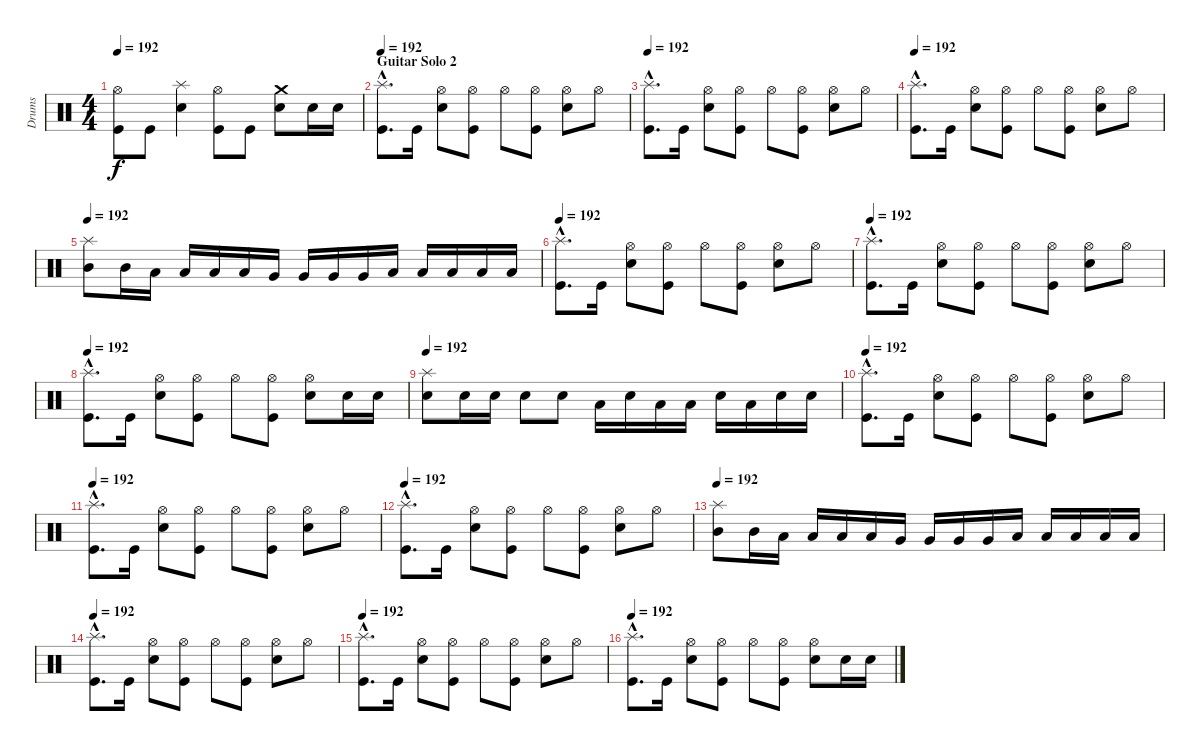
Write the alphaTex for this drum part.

\track ("Drums" "Drums") {instrument percussion}
\staff {score}
\articulation defaults
\ts (4 4)
\tempo 192
\clef neutral
\ks c
("Kick (hit)" "Hi-Hat (open)").8{dy f} "Kick (hit)".8 ("Electric Snare (hit)" "Splash (hit)").4 ("Kick (hit)" "Hi-Hat (open)").8 "Kick (hit)".8 ("Electric Snare (hit)" "Crash medium (hit)").8 "Electric Snare (hit)".16 "Electric Snare (hit)".16 |
\section ("" "Guitar Solo 2")
\tempo 192
("Kick (hit)"{hac} "Splash (hit)"{hac}).8{d} "Kick (hit)".16 ("Electric Snare (hit)" "Hi-Hat (open)").8 ("Kick (hit)" "Hi-Hat (open)").8 "Hi-Hat (open)".8 ("Kick (hit)" "Hi-Hat (open)").8 ("Electric Snare (hit)" "Hi-Hat (open)").8 "Hi-Hat (open)".8 |
\tempo 192
("Kick (hit)"{hac} "Splash (hit)"{hac}).8{d} "Kick (hit)".16 ("Electric Snare (hit)" "Hi-Hat (open)").8 ("Kick (hit)" "Hi-Hat (open)").8 "Hi-Hat (open)".8 ("Kick (hit)" "Hi-Hat (open)").8 ("Electric Snare (hit)" "Hi-Hat (open)").8 "Hi-Hat (open)".8 |
\tempo 192
("Kick (hit)"{hac} "Splash (hit)"{hac}).8{d} "Kick (hit)".16 ("Electric Snare (hit)" "Hi-Hat (open)").8 ("Kick (hit)" "Hi-Hat (open)").8 "Hi-Hat (open)".8 ("Kick (hit)" "Hi-Hat (open)").8 ("Electric Snare (hit)" "Hi-Hat (open)").8 "Hi-Hat (open)".8 |
\tempo 192
("Mid Tom (hit)" "Splash (hit)").8 "Mid Tom (hit)".16 "Low Tom (hit)".16 "Low Tom (hit)".16 "Low Tom (hit)".16 "Low Tom (hit)".16 "Very Low Tom (hit)".16 "Very Low Tom (hit)".16 "Very Low Tom (hit)".16 "Very Low Tom (hit)".16 "Low Floor Tom (hit)".16 "Low Floor Tom (hit)".16 "Low Floor Tom (hit)".16 "Low Floor Tom (hit)".16 "Low Floor Tom (hit)".16 |
\tempo 192
("Kick (hit)"{hac} "Splash (hit)"{hac}).8{d} "Kick (hit)".16 ("Electric Snare (hit)" "Hi-Hat (open)").8 ("Kick (hit)" "Hi-Hat (open)").8 "Hi-Hat (open)".8 ("Kick (hit)" "Hi-Hat (open)").8 ("Electric Snare (hit)" "Hi-Hat (open)").8 "Hi-Hat (open)".8 |
\tempo 192
("Kick (hit)"{hac} "Splash (hit)"{hac}).8{d} "Kick (hit)".16 ("Electric Snare (hit)" "Hi-Hat (open)").8 ("Kick (hit)" "Hi-Hat (open)").8 "Hi-Hat (open)".8 ("Kick (hit)" "Hi-Hat (open)").8 ("Electric Snare (hit)" "Hi-Hat (open)").8 "Hi-Hat (open)".8 |
\tempo 192
("Kick (hit)"{hac} "Splash (hit)"{hac}).8{d} "Kick (hit)".16 ("Electric Snare (hit)" "Hi-Hat (open)").8 ("Kick (hit)" "Hi-Hat (open)").8 "Hi-Hat (open)".8 ("Kick (hit)" "Hi-Hat (open)").8 ("Electric Snare (hit)" "Hi-Hat (open)").8 "Electric Snare (hit)".16 "Electric Snare (hit)".16 |
\tempo 192
("Electric Snare (hit)" "Splash (hit)").8 "Electric Snare (hit)".16 "Electric Snare (hit)".16 "Electric Snare (hit)".8 "Electric Snare (hit)".8 "Low Tom (hit)".16 "Electric Snare (hit)".16 "Low Tom (hit)".16 "Low Tom (hit)".16 "Electric Snare (hit)".16 "Low Tom (hit)".16 "Electric Snare (hit)".16 "Electric Snare (hit)".16 |
\tempo 192
("Kick (hit)"{hac} "Splash (hit)"{hac}).8{d} "Kick (hit)".16 ("Electric Snare (hit)" "Hi-Hat (open)").8 ("Kick (hit)" "Hi-Hat (open)").8 "Hi-Hat (open)".8 ("Kick (hit)" "Hi-Hat (open)").8 ("Electric Snare (hit)" "Hi-Hat (open)").8 "Hi-Hat (open)".8 |
\tempo 192
("Kick (hit)"{hac} "Splash (hit)"{hac}).8{d} "Kick (hit)".16 ("Electric Snare (hit)" "Hi-Hat (open)").8 ("Kick (hit)" "Hi-Hat (open)").8 "Hi-Hat (open)".8 ("Kick (hit)" "Hi-Hat (open)").8 ("Electric Snare (hit)" "Hi-Hat (open)").8 "Hi-Hat (open)".8 |
\tempo 192
("Kick (hit)"{hac} "Splash (hit)"{hac}).8{d} "Kick (hit)".16 ("Electric Snare (hit)" "Hi-Hat (open)").8 ("Kick (hit)" "Hi-Hat (open)").8 "Hi-Hat (open)".8 ("Kick (hit)" "Hi-Hat (open)").8 ("Electric Snare (hit)" "Hi-Hat (open)").8 "Hi-Hat (open)".8 |
\tempo 192
("Mid Tom (hit)" "Splash (hit)").8 "Mid Tom (hit)".16 "Low Tom (hit)".16 "Low Tom (hit)".16 "Low Tom (hit)".16 "Low Tom (hit)".16 "Very Low Tom (hit)".16 "Very Low Tom (hit)".16 "Very Low Tom (hit)".16 "Very Low Tom (hit)".16 "Low Floor Tom (hit)".16 "Low Floor Tom (hit)".16 "Low Floor Tom (hit)".16 "Low Floor Tom (hit)".16 "Low Floor Tom (hit)".16 |
\tempo 192
("Kick (hit)"{hac} "Splash (hit)"{hac}).8{d} "Kick (hit)".16 ("Electric Snare (hit)" "Hi-Hat (open)").8 ("Kick (hit)" "Hi-Hat (open)").8 "Hi-Hat (open)".8 ("Kick (hit)" "Hi-Hat (open)").8 ("Electric Snare (hit)" "Hi-Hat (open)").8 "Hi-Hat (open)".8 |
\tempo 192
("Kick (hit)"{hac} "Splash (hit)"{hac}).8{d} "Kick (hit)".16 ("Electric Snare (hit)" "Hi-Hat (open)").8 ("Kick (hit)" "Hi-Hat (open)").8 "Hi-Hat (open)".8 ("Kick (hit)" "Hi-Hat (open)").8 ("Electric Snare (hit)" "Hi-Hat (open)").8 "Hi-Hat (open)".8 |
\tempo 192
("Kick (hit)"{hac} "Splash (hit)"{hac}).8{d} "Kick (hit)".16 ("Electric Snare (hit)" "Hi-Hat (open)").8 ("Kick (hit)" "Hi-Hat (open)").8 "Hi-Hat (open)".8 ("Kick (hit)" "Hi-Hat (open)").8 ("Electric Snare (hit)" "Hi-Hat (open)").8 "Electric Snare (hit)".16 "Electric Snare (hit)".16
